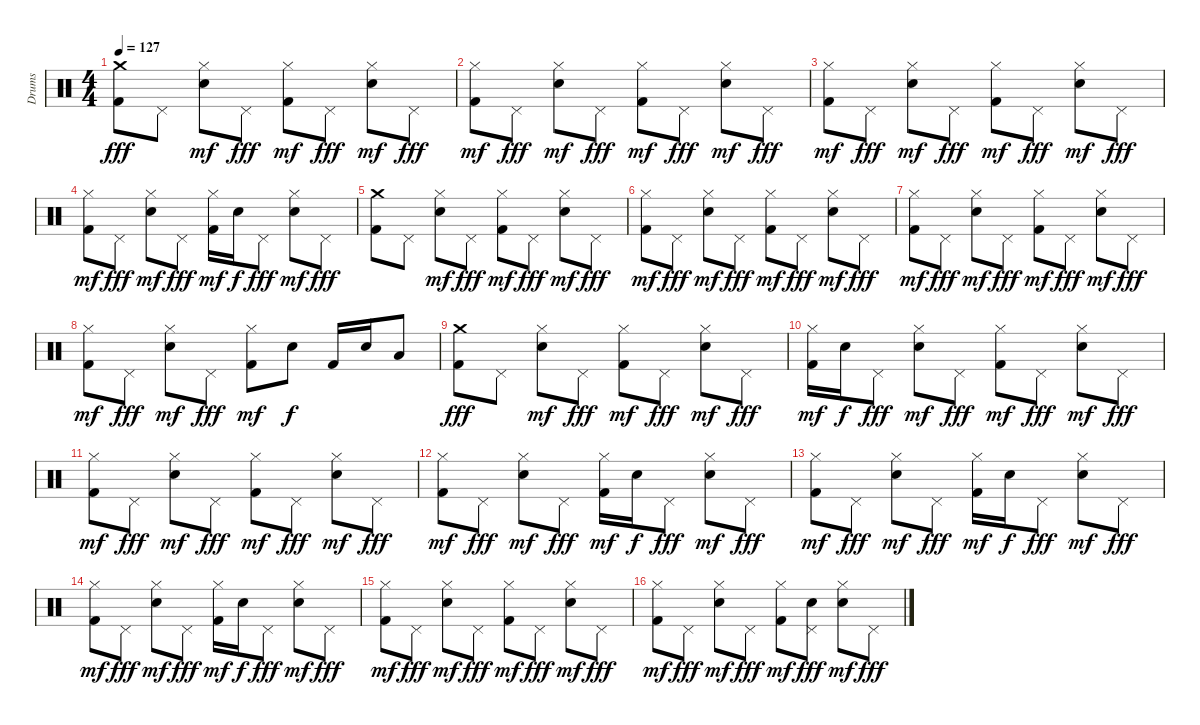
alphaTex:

\track ("Drums" "Drums") {instrument percussion}
\staff {score}
\articulation defaults
\ts (4 4)
\tempo 127
\clef neutral
\ks c
("Kick (hit) 2" "Crash medium (hit)").8{dy fff} "Pedal Hi-Hat (hit)".8 ("Hi-Hat (closed)" "Electric Snare (hit)").8{dy mf} "Pedal Hi-Hat (hit)".8{dy fff} ("Kick (hit) 2" "Hi-Hat (closed)").8{dy mf} "Pedal Hi-Hat (hit)".8{dy fff} ("Hi-Hat (closed)" "Electric Snare (hit)").8{dy mf} "Pedal Hi-Hat (hit)".8{dy fff} |
("Kick (hit) 2" "Hi-Hat (closed)").8{dy mf} "Pedal Hi-Hat (hit)".8{dy fff} ("Hi-Hat (closed)" "Electric Snare (hit)").8{dy mf} "Pedal Hi-Hat (hit)".8{dy fff} ("Kick (hit) 2" "Hi-Hat (closed)").8{dy mf} "Pedal Hi-Hat (hit)".8{dy fff} ("Hi-Hat (closed)" "Electric Snare (hit)").8{dy mf} "Pedal Hi-Hat (hit)".8{dy fff} |
("Kick (hit) 2" "Hi-Hat (closed)").8{dy mf} "Pedal Hi-Hat (hit)".8{dy fff} ("Hi-Hat (closed)" "Electric Snare (hit)").8{dy mf} "Pedal Hi-Hat (hit)".8{dy fff} ("Kick (hit) 2" "Hi-Hat (closed)").8{dy mf} "Pedal Hi-Hat (hit)".8{dy fff} ("Hi-Hat (closed)" "Electric Snare (hit)").8{dy mf} "Pedal Hi-Hat (hit)".8{dy fff} |
("Kick (hit) 2" "Hi-Hat (closed)").8{dy mf} "Pedal Hi-Hat (hit)".8{dy fff} ("Hi-Hat (closed)" "Electric Snare (hit)").8{dy mf} "Pedal Hi-Hat (hit)".8{dy fff} ("Kick (hit) 2" "Hi-Hat (closed)").16{dy mf} "Electric Snare (hit)".16{dy f} "Pedal Hi-Hat (hit)".8{dy fff} ("Hi-Hat (closed)" "Electric Snare (hit)").8{dy mf} "Pedal Hi-Hat (hit)".8{dy fff} |
("Kick (hit) 2" "Crash medium (hit)").8 "Pedal Hi-Hat (hit)".8 ("Hi-Hat (closed)" "Electric Snare (hit)").8{dy mf} "Pedal Hi-Hat (hit)".8{dy fff} ("Kick (hit) 2" "Hi-Hat (closed)").8{dy mf} "Pedal Hi-Hat (hit)".8{dy fff} ("Hi-Hat (closed)" "Electric Snare (hit)").8{dy mf} "Pedal Hi-Hat (hit)".8{dy fff} |
("Kick (hit) 2" "Hi-Hat (closed)").8{dy mf} "Pedal Hi-Hat (hit)".8{dy fff} ("Hi-Hat (closed)" "Electric Snare (hit)").8{dy mf} "Pedal Hi-Hat (hit)".8{dy fff} ("Kick (hit) 2" "Hi-Hat (closed)").8{dy mf} "Pedal Hi-Hat (hit)".8{dy fff} ("Hi-Hat (closed)" "Electric Snare (hit)").8{dy mf} "Pedal Hi-Hat (hit)".8{dy fff} |
("Kick (hit) 2" "Hi-Hat (closed)").8{dy mf} "Pedal Hi-Hat (hit)".8{dy fff} ("Hi-Hat (closed)" "Electric Snare (hit)").8{dy mf} "Pedal Hi-Hat (hit)".8{dy fff} ("Kick (hit) 2" "Hi-Hat (closed)").8{dy mf} "Pedal Hi-Hat (hit)".8{dy fff} ("Hi-Hat (closed)" "Electric Snare (hit)").8{dy mf} "Pedal Hi-Hat (hit)".8{dy fff} |
("Kick (hit) 2" "Hi-Hat (closed)").8{dy mf} "Pedal Hi-Hat (hit)".8{dy fff} ("Hi-Hat (closed)" "Electric Snare (hit)").8{dy mf} "Pedal Hi-Hat (hit)".8{dy fff} ("Kick (hit) 2" "Hi-Hat (closed)").8{dy mf} "Electric Snare (hit)".8{dy f} "Kick (hit) 2".16 "Electric Snare (hit)".16 "Low Floor Tom (hit)".8 |
("Kick (hit) 2" "Crash medium (hit)").8{dy fff} "Pedal Hi-Hat (hit)".8 ("Hi-Hat (closed)" "Electric Snare (hit)").8{dy mf} "Pedal Hi-Hat (hit)".8{dy fff} ("Kick (hit) 2" "Hi-Hat (closed)").8{dy mf} "Pedal Hi-Hat (hit)".8{dy fff} ("Hi-Hat (closed)" "Electric Snare (hit)").8{dy mf} "Pedal Hi-Hat (hit)".8{dy fff} |
("Kick (hit) 2" "Hi-Hat (closed)").16{dy mf} "Electric Snare (hit)".16{dy f} "Pedal Hi-Hat (hit)".8{dy fff} ("Hi-Hat (closed)" "Electric Snare (hit)").8{dy mf} "Pedal Hi-Hat (hit)".8{dy fff} ("Kick (hit) 2" "Hi-Hat (closed)").8{dy mf} "Pedal Hi-Hat (hit)".8{dy fff} ("Hi-Hat (closed)" "Electric Snare (hit)").8{dy mf} "Pedal Hi-Hat (hit)".8{dy fff} |
("Kick (hit) 2" "Hi-Hat (closed)").8{dy mf} "Pedal Hi-Hat (hit)".8{dy fff} ("Hi-Hat (closed)" "Electric Snare (hit)").8{dy mf} "Pedal Hi-Hat (hit)".8{dy fff} ("Kick (hit) 2" "Hi-Hat (closed)").8{dy mf} "Pedal Hi-Hat (hit)".8{dy fff} ("Hi-Hat (closed)" "Electric Snare (hit)").8{dy mf} "Pedal Hi-Hat (hit)".8{dy fff} |
("Kick (hit) 2" "Hi-Hat (closed)").8{dy mf} "Pedal Hi-Hat (hit)".8{dy fff} ("Hi-Hat (closed)" "Electric Snare (hit)").8{dy mf} "Pedal Hi-Hat (hit)".8{dy fff} ("Kick (hit) 2" "Hi-Hat (closed)").16{dy mf} "Electric Snare (hit)".16{dy f} "Pedal Hi-Hat (hit)".8{dy fff} ("Hi-Hat (closed)" "Electric Snare (hit)").8{dy mf} "Pedal Hi-Hat (hit)".8{dy fff} |
("Kick (hit) 2" "Hi-Hat (closed)").8{dy mf} "Pedal Hi-Hat (hit)".8{dy fff} ("Hi-Hat (closed)" "Electric Snare (hit)").8{dy mf} "Pedal Hi-Hat (hit)".8{dy fff} ("Kick (hit) 2" "Hi-Hat (closed)").16{dy mf} "Electric Snare (hit)".16{dy f} "Pedal Hi-Hat (hit)".8{dy fff} ("Hi-Hat (closed)" "Electric Snare (hit)").8{dy mf} "Pedal Hi-Hat (hit)".8{dy fff} |
("Kick (hit) 2" "Hi-Hat (closed)").8{dy mf} "Pedal Hi-Hat (hit)".8{dy fff} ("Hi-Hat (closed)" "Electric Snare (hit)").8{dy mf} "Pedal Hi-Hat (hit)".8{dy fff} ("Kick (hit) 2" "Hi-Hat (closed)").16{dy mf} "Electric Snare (hit)".16{dy f} "Pedal Hi-Hat (hit)".8{dy fff} ("Hi-Hat (closed)" "Electric Snare (hit)").8{dy mf} "Pedal Hi-Hat (hit)".8{dy fff} |
("Kick (hit) 2" "Hi-Hat (closed)").8{dy mf} "Pedal Hi-Hat (hit)".8{dy fff} ("Hi-Hat (closed)" "Electric Snare (hit)").8{dy mf} "Pedal Hi-Hat (hit)".8{dy fff} ("Kick (hit) 2" "Hi-Hat (closed)").8{dy mf} "Pedal Hi-Hat (hit)".8{dy fff} ("Hi-Hat (closed)" "Electric Snare (hit)").8{dy mf} "Pedal Hi-Hat (hit)".8{dy fff} |
("Kick (hit) 2" "Hi-Hat (closed)").8{dy mf} "Pedal Hi-Hat (hit)".8{dy fff} ("Hi-Hat (closed)" "Electric Snare (hit)").8{dy mf} "Pedal Hi-Hat (hit)".8{dy fff} ("Kick (hit) 2" "Hi-Hat (closed)").8{dy mf} ("Pedal Hi-Hat (hit)" "Electric Snare (hit)").8{dy fff} ("Hi-Hat (closed)" "Electric Snare (hit)").8{dy mf} "Pedal Hi-Hat (hit)".8{dy fff}
